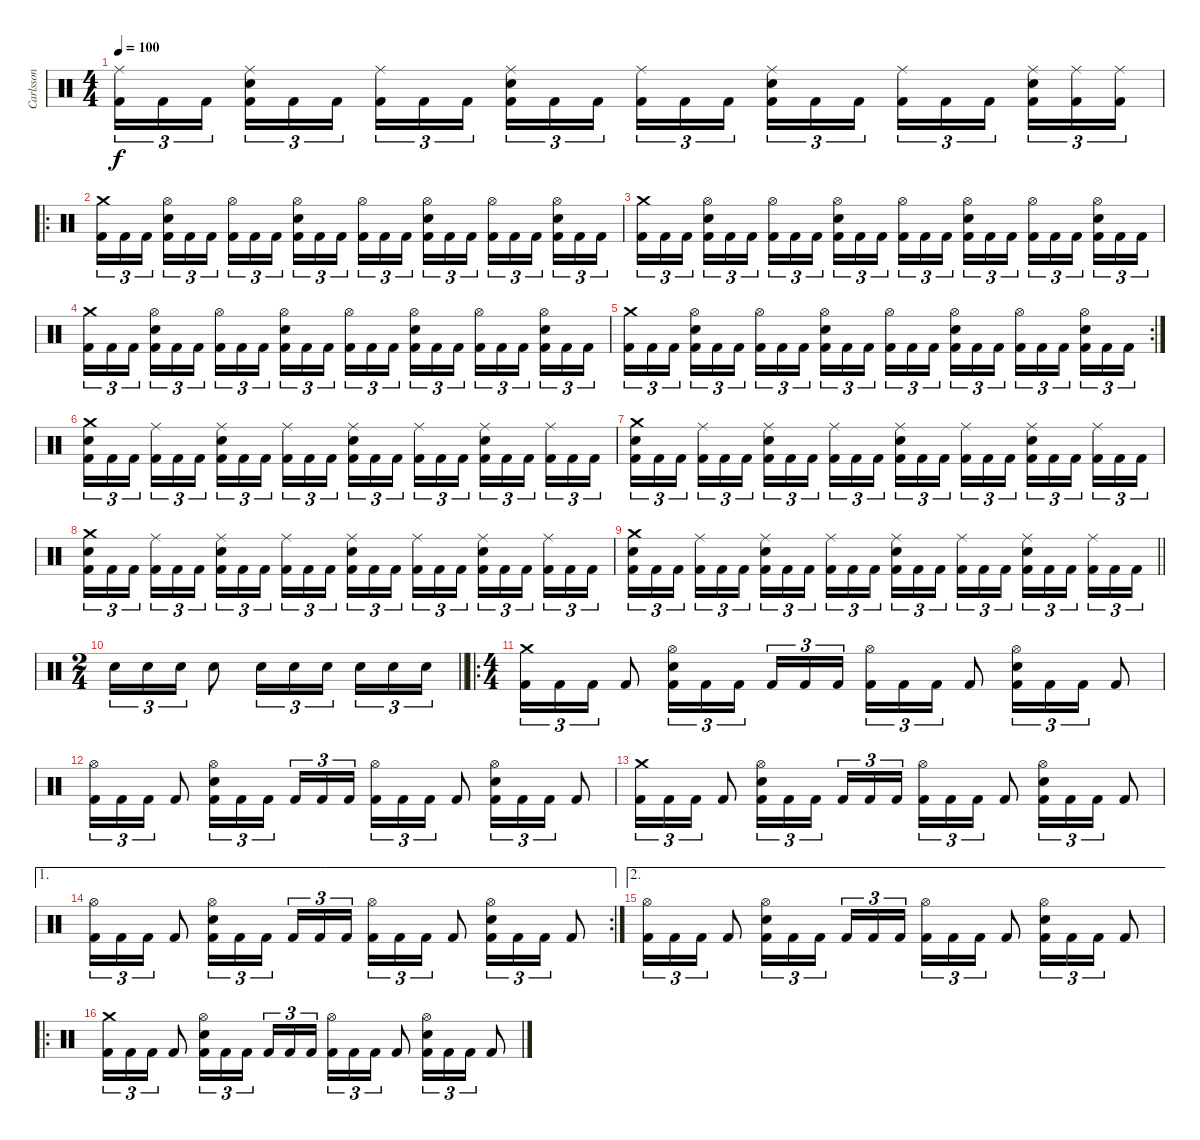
\track ("Carlsson" "Carlsson") {instrument percussion}
\staff {score}
\articulation defaults
\ts (4 4)
\tempo 100
\clef neutral
\ks c
("Ride (middle)" "Kick (hit) 2").16{tu (3 2) dy f} "Kick (hit) 2".16{tu (3 2)} "Kick (hit) 2".16{tu (3 2)} ("Ride (middle)" "Electric Snare (hit)" "Kick (hit) 2").16{tu (3 2)} "Kick (hit) 2".16{tu (3 2)} "Kick (hit) 2".16{tu (3 2)} ("Ride (middle)" "Kick (hit) 2").16{tu (3 2)} "Kick (hit) 2".16{tu (3 2)} "Kick (hit) 2".16{tu (3 2)} ("Ride (middle)" "Electric Snare (hit)" "Kick (hit) 2").16{tu (3 2)} "Kick (hit) 2".16{tu (3 2)} "Kick (hit) 2".16{tu (3 2)} ("Ride (middle)" "Kick (hit) 2").16{tu (3 2)} "Kick (hit) 2".16{tu (3 2)} "Kick (hit) 2".16{tu (3 2)} ("Ride (middle)" "Electric Snare (hit)" "Kick (hit) 2").16{tu (3 2)} "Kick (hit) 2".16{tu (3 2)} "Kick (hit) 2".16{tu (3 2)} ("Ride (middle)" "Kick (hit) 2").16{tu (3 2)} "Kick (hit) 2".16{tu (3 2)} "Kick (hit) 2".16{tu (3 2)} ("Ride (middle)" "Electric Snare (hit)" "Kick (hit) 2").16{tu (3 2)} ("Ride (middle)" "Kick (hit) 2").16{tu (3 2)} ("Ride (middle)" "Kick (hit) 2").16{tu (3 2)} |
\ro
("Crash medium (hit)" "Kick (hit) 2").16{tu (3 2)} "Kick (hit) 2".16{tu (3 2)} "Kick (hit) 2".16{tu (3 2)} ("Hi-Hat (open)" "Electric Snare (hit)" "Kick (hit) 2").16{tu (3 2)} "Kick (hit) 2".16{tu (3 2)} "Kick (hit) 2".16{tu (3 2)} ("Hi-Hat (open)" "Kick (hit) 2").16{tu (3 2)} "Kick (hit) 2".16{tu (3 2)} "Kick (hit) 2".16{tu (3 2)} ("Hi-Hat (open)" "Electric Snare (hit)" "Kick (hit) 2").16{tu (3 2)} "Kick (hit) 2".16{tu (3 2)} "Kick (hit) 2".16{tu (3 2)} ("Hi-Hat (open)" "Kick (hit) 2").16{tu (3 2)} "Kick (hit) 2".16{tu (3 2)} "Kick (hit) 2".16{tu (3 2)} ("Hi-Hat (open)" "Electric Snare (hit)" "Kick (hit) 2").16{tu (3 2)} "Kick (hit) 2".16{tu (3 2)} "Kick (hit) 2".16{tu (3 2)} ("Hi-Hat (open)" "Kick (hit) 2").16{tu (3 2)} "Kick (hit) 2".16{tu (3 2)} "Kick (hit) 2".16{tu (3 2)} ("Hi-Hat (open)" "Electric Snare (hit)" "Kick (hit) 2").16{tu (3 2)} "Kick (hit) 2".16{tu (3 2)} "Kick (hit) 2".16{tu (3 2)} |
("Crash medium (hit)" "Kick (hit) 2").16{tu (3 2)} "Kick (hit) 2".16{tu (3 2)} "Kick (hit) 2".16{tu (3 2)} ("Hi-Hat (open)" "Electric Snare (hit)" "Kick (hit) 2").16{tu (3 2)} "Kick (hit) 2".16{tu (3 2)} "Kick (hit) 2".16{tu (3 2)} ("Hi-Hat (open)" "Kick (hit) 2").16{tu (3 2)} "Kick (hit) 2".16{tu (3 2)} "Kick (hit) 2".16{tu (3 2)} ("Hi-Hat (open)" "Electric Snare (hit)" "Kick (hit) 2").16{tu (3 2)} "Kick (hit) 2".16{tu (3 2)} "Kick (hit) 2".16{tu (3 2)} ("Hi-Hat (open)" "Kick (hit) 2").16{tu (3 2)} "Kick (hit) 2".16{tu (3 2)} "Kick (hit) 2".16{tu (3 2)} ("Hi-Hat (open)" "Electric Snare (hit)" "Kick (hit) 2").16{tu (3 2)} "Kick (hit) 2".16{tu (3 2)} "Kick (hit) 2".16{tu (3 2)} ("Hi-Hat (open)" "Kick (hit) 2").16{tu (3 2)} "Kick (hit) 2".16{tu (3 2)} "Kick (hit) 2".16{tu (3 2)} ("Hi-Hat (open)" "Electric Snare (hit)" "Kick (hit) 2").16{tu (3 2)} "Kick (hit) 2".16{tu (3 2)} "Kick (hit) 2".16{tu (3 2)} |
("Crash medium (hit)" "Kick (hit) 2").16{tu (3 2)} "Kick (hit) 2".16{tu (3 2)} "Kick (hit) 2".16{tu (3 2)} ("Hi-Hat (open)" "Electric Snare (hit)" "Kick (hit) 2").16{tu (3 2)} "Kick (hit) 2".16{tu (3 2)} "Kick (hit) 2".16{tu (3 2)} ("Hi-Hat (open)" "Kick (hit) 2").16{tu (3 2)} "Kick (hit) 2".16{tu (3 2)} "Kick (hit) 2".16{tu (3 2)} ("Hi-Hat (open)" "Electric Snare (hit)" "Kick (hit) 2").16{tu (3 2)} "Kick (hit) 2".16{tu (3 2)} "Kick (hit) 2".16{tu (3 2)} ("Hi-Hat (open)" "Kick (hit) 2").16{tu (3 2)} "Kick (hit) 2".16{tu (3 2)} "Kick (hit) 2".16{tu (3 2)} ("Hi-Hat (open)" "Electric Snare (hit)" "Kick (hit) 2").16{tu (3 2)} "Kick (hit) 2".16{tu (3 2)} "Kick (hit) 2".16{tu (3 2)} ("Hi-Hat (open)" "Kick (hit) 2").16{tu (3 2)} "Kick (hit) 2".16{tu (3 2)} "Kick (hit) 2".16{tu (3 2)} ("Hi-Hat (open)" "Electric Snare (hit)" "Kick (hit) 2").16{tu (3 2)} "Kick (hit) 2".16{tu (3 2)} "Kick (hit) 2".16{tu (3 2)} |
\rc 2
("Crash medium (hit)" "Kick (hit) 2").16{tu (3 2)} "Kick (hit) 2".16{tu (3 2)} "Kick (hit) 2".16{tu (3 2)} ("Hi-Hat (open)" "Electric Snare (hit)" "Kick (hit) 2").16{tu (3 2)} "Kick (hit) 2".16{tu (3 2)} "Kick (hit) 2".16{tu (3 2)} ("Hi-Hat (open)" "Kick (hit) 2").16{tu (3 2)} "Kick (hit) 2".16{tu (3 2)} "Kick (hit) 2".16{tu (3 2)} ("Hi-Hat (open)" "Electric Snare (hit)" "Kick (hit) 2").16{tu (3 2)} "Kick (hit) 2".16{tu (3 2)} "Kick (hit) 2".16{tu (3 2)} ("Hi-Hat (open)" "Kick (hit) 2").16{tu (3 2)} "Kick (hit) 2".16{tu (3 2)} "Kick (hit) 2".16{tu (3 2)} ("Hi-Hat (open)" "Electric Snare (hit)" "Kick (hit) 2").16{tu (3 2)} "Kick (hit) 2".16{tu (3 2)} "Kick (hit) 2".16{tu (3 2)} ("Hi-Hat (open)" "Kick (hit) 2").16{tu (3 2)} "Kick (hit) 2".16{tu (3 2)} "Kick (hit) 2".16{tu (3 2)} ("Hi-Hat (open)" "Electric Snare (hit)" "Kick (hit) 2").16{tu (3 2)} "Kick (hit) 2".16{tu (3 2)} "Kick (hit) 2".16{tu (3 2)} |
("Crash medium (hit)" "Electric Snare (hit)" "Kick (hit) 2").16{tu (3 2)} "Kick (hit) 2".16{tu (3 2)} "Kick (hit) 2".16{tu (3 2)} ("Ride (middle)" "Kick (hit) 2").16{tu (3 2)} "Kick (hit) 2".16{tu (3 2)} "Kick (hit) 2".16{tu (3 2)} ("Ride (middle)" "Electric Snare (hit)" "Kick (hit) 2").16{tu (3 2)} "Kick (hit) 2".16{tu (3 2)} "Kick (hit) 2".16{tu (3 2)} ("Ride (middle)" "Kick (hit) 2").16{tu (3 2)} "Kick (hit) 2".16{tu (3 2)} "Kick (hit) 2".16{tu (3 2)} ("Ride (middle)" "Electric Snare (hit)" "Kick (hit) 2").16{tu (3 2)} "Kick (hit) 2".16{tu (3 2)} "Kick (hit) 2".16{tu (3 2)} ("Ride (middle)" "Kick (hit) 2").16{tu (3 2)} "Kick (hit) 2".16{tu (3 2)} "Kick (hit) 2".16{tu (3 2)} ("Ride (middle)" "Electric Snare (hit)" "Kick (hit) 2").16{tu (3 2)} "Kick (hit) 2".16{tu (3 2)} "Kick (hit) 2".16{tu (3 2)} ("Ride (middle)" "Kick (hit) 2").16{tu (3 2)} "Kick (hit) 2".16{tu (3 2)} "Kick (hit) 2".16{tu (3 2)} |
("Crash medium (hit)" "Electric Snare (hit)" "Kick (hit) 2").16{tu (3 2)} "Kick (hit) 2".16{tu (3 2)} "Kick (hit) 2".16{tu (3 2)} ("Ride (middle)" "Kick (hit) 2").16{tu (3 2)} "Kick (hit) 2".16{tu (3 2)} "Kick (hit) 2".16{tu (3 2)} ("Ride (middle)" "Electric Snare (hit)" "Kick (hit) 2").16{tu (3 2)} "Kick (hit) 2".16{tu (3 2)} "Kick (hit) 2".16{tu (3 2)} ("Ride (middle)" "Kick (hit) 2").16{tu (3 2)} "Kick (hit) 2".16{tu (3 2)} "Kick (hit) 2".16{tu (3 2)} ("Ride (middle)" "Electric Snare (hit)" "Kick (hit) 2").16{tu (3 2)} "Kick (hit) 2".16{tu (3 2)} "Kick (hit) 2".16{tu (3 2)} ("Ride (middle)" "Kick (hit) 2").16{tu (3 2)} "Kick (hit) 2".16{tu (3 2)} "Kick (hit) 2".16{tu (3 2)} ("Ride (middle)" "Electric Snare (hit)" "Kick (hit) 2").16{tu (3 2)} "Kick (hit) 2".16{tu (3 2)} "Kick (hit) 2".16{tu (3 2)} ("Ride (middle)" "Kick (hit) 2").16{tu (3 2)} "Kick (hit) 2".16{tu (3 2)} "Kick (hit) 2".16{tu (3 2)} |
("Crash medium (hit)" "Electric Snare (hit)" "Kick (hit) 2").16{tu (3 2)} "Kick (hit) 2".16{tu (3 2)} "Kick (hit) 2".16{tu (3 2)} ("Ride (middle)" "Kick (hit) 2").16{tu (3 2)} "Kick (hit) 2".16{tu (3 2)} "Kick (hit) 2".16{tu (3 2)} ("Ride (middle)" "Electric Snare (hit)" "Kick (hit) 2").16{tu (3 2)} "Kick (hit) 2".16{tu (3 2)} "Kick (hit) 2".16{tu (3 2)} ("Ride (middle)" "Kick (hit) 2").16{tu (3 2)} "Kick (hit) 2".16{tu (3 2)} "Kick (hit) 2".16{tu (3 2)} ("Ride (middle)" "Electric Snare (hit)" "Kick (hit) 2").16{tu (3 2)} "Kick (hit) 2".16{tu (3 2)} "Kick (hit) 2".16{tu (3 2)} ("Ride (middle)" "Kick (hit) 2").16{tu (3 2)} "Kick (hit) 2".16{tu (3 2)} "Kick (hit) 2".16{tu (3 2)} ("Ride (middle)" "Electric Snare (hit)" "Kick (hit) 2").16{tu (3 2)} "Kick (hit) 2".16{tu (3 2)} "Kick (hit) 2".16{tu (3 2)} ("Ride (middle)" "Kick (hit) 2").16{tu (3 2)} "Kick (hit) 2".16{tu (3 2)} "Kick (hit) 2".16{tu (3 2)} |
\barLineRight lightlight
("Crash medium (hit)" "Electric Snare (hit)" "Kick (hit) 2").16{tu (3 2)} "Kick (hit) 2".16{tu (3 2)} "Kick (hit) 2".16{tu (3 2)} ("Ride (middle)" "Kick (hit) 2").16{tu (3 2)} "Kick (hit) 2".16{tu (3 2)} "Kick (hit) 2".16{tu (3 2)} ("Ride (middle)" "Electric Snare (hit)" "Kick (hit) 2").16{tu (3 2)} "Kick (hit) 2".16{tu (3 2)} "Kick (hit) 2".16{tu (3 2)} ("Ride (middle)" "Kick (hit) 2").16{tu (3 2)} "Kick (hit) 2".16{tu (3 2)} "Kick (hit) 2".16{tu (3 2)} ("Ride (middle)" "Electric Snare (hit)" "Kick (hit) 2").16{tu (3 2)} "Kick (hit) 2".16{tu (3 2)} "Kick (hit) 2".16{tu (3 2)} ("Ride (middle)" "Kick (hit) 2").16{tu (3 2)} "Kick (hit) 2".16{tu (3 2)} "Kick (hit) 2".16{tu (3 2)} ("Ride (middle)" "Electric Snare (hit)" "Kick (hit) 2").16{tu (3 2)} "Kick (hit) 2".16{tu (3 2)} "Kick (hit) 2".16{tu (3 2)} ("Ride (middle)" "Kick (hit) 2").16{tu (3 2)} "Kick (hit) 2".16{tu (3 2)} "Kick (hit) 2".16{tu (3 2)} |
\ts (2 4)
\barLineRight lightlight "Electric Snare (hit)".16{tu (3 2)} "Electric Snare (hit)".16{tu (3 2)} "Electric Snare (hit)".16{tu (3 2)} "Electric Snare (hit)".8 "Electric Snare (hit)".16{tu (3 2)} "Electric Snare (hit)".16{tu (3 2)} "Electric Snare (hit)".16{tu (3 2)} "Electric Snare (hit)".16{tu (3 2)} "Electric Snare (hit)".16{tu (3 2)} "Electric Snare (hit)".16{tu (3 2)}
|
\ro
\ts (4 4)
("Crash medium (hit)" "Kick (hit) 2").16{tu (3 2)} "Kick (hit) 2".16{tu (3 2)} "Kick (hit) 2".16{tu (3 2)} "Kick (hit) 2".8 ("Hi-Hat (open)" "Electric Snare (hit)" "Kick (hit) 2").16{tu (3 2)} "Kick (hit) 2".16{tu (3 2)} "Kick (hit) 2".16{tu (3 2)} "Kick (hit) 2".16{tu (3 2)} "Kick (hit) 2".16{tu (3 2)} "Kick (hit) 2".16{tu (3 2)} ("Hi-Hat (open)" "Kick (hit) 2").16{tu (3 2)} "Kick (hit) 2".16{tu (3 2)} "Kick (hit) 2".16{tu (3 2)} "Kick (hit) 2".8 ("Hi-Hat (open)" "Electric Snare (hit)" "Kick (hit) 2").16{tu (3 2)} "Kick (hit) 2".16{tu (3 2)} "Kick (hit) 2".16{tu (3 2)} "Kick (hit) 2".8 |
("Hi-Hat (open)" "Kick (hit) 2").16{tu (3 2)} "Kick (hit) 2".16{tu (3 2)} "Kick (hit) 2".16{tu (3 2)} "Kick (hit) 2".8 ("Hi-Hat (open)" "Electric Snare (hit)" "Kick (hit) 2").16{tu (3 2)} "Kick (hit) 2".16{tu (3 2)} "Kick (hit) 2".16{tu (3 2)} "Kick (hit) 2".16{tu (3 2)} "Kick (hit) 2".16{tu (3 2)} "Kick (hit) 2".16{tu (3 2)} ("Hi-Hat (open)" "Kick (hit) 2").16{tu (3 2)} "Kick (hit) 2".16{tu (3 2)} "Kick (hit) 2".16{tu (3 2)} "Kick (hit) 2".8 ("Hi-Hat (open)" "Electric Snare (hit)" "Kick (hit) 2").16{tu (3 2)} "Kick (hit) 2".16{tu (3 2)} "Kick (hit) 2".16{tu (3 2)} "Kick (hit) 2".8 |
("Crash medium (hit)" "Kick (hit) 2").16{tu (3 2)} "Kick (hit) 2".16{tu (3 2)} "Kick (hit) 2".16{tu (3 2)} "Kick (hit) 2".8 ("Hi-Hat (open)" "Electric Snare (hit)" "Kick (hit) 2").16{tu (3 2)} "Kick (hit) 2".16{tu (3 2)} "Kick (hit) 2".16{tu (3 2)} "Kick (hit) 2".16{tu (3 2)} "Kick (hit) 2".16{tu (3 2)} "Kick (hit) 2".16{tu (3 2)} ("Hi-Hat (open)" "Kick (hit) 2").16{tu (3 2)} "Kick (hit) 2".16{tu (3 2)} "Kick (hit) 2".16{tu (3 2)} "Kick (hit) 2".8 ("Hi-Hat (open)" "Electric Snare (hit)" "Kick (hit) 2").16{tu (3 2)} "Kick (hit) 2".16{tu (3 2)} "Kick (hit) 2".16{tu (3 2)} "Kick (hit) 2".8 |
\ae 1
\rc 2
("Hi-Hat (open)" "Kick (hit) 2").16{tu (3 2)} "Kick (hit) 2".16{tu (3 2)} "Kick (hit) 2".16{tu (3 2)} "Kick (hit) 2".8 ("Hi-Hat (open)" "Electric Snare (hit)" "Kick (hit) 2").16{tu (3 2)} "Kick (hit) 2".16{tu (3 2)} "Kick (hit) 2".16{tu (3 2)} "Kick (hit) 2".16{tu (3 2)} "Kick (hit) 2".16{tu (3 2)} "Kick (hit) 2".16{tu (3 2)} ("Hi-Hat (open)" "Kick (hit) 2").16{tu (3 2)} "Kick (hit) 2".16{tu (3 2)} "Kick (hit) 2".16{tu (3 2)} "Kick (hit) 2".8 ("Hi-Hat (open)" "Electric Snare (hit)" "Kick (hit) 2").16{tu (3 2)} "Kick (hit) 2".16{tu (3 2)} "Kick (hit) 2".16{tu (3 2)} "Kick (hit) 2".8 |
\ae 2
("Hi-Hat (open)" "Kick (hit) 2").16{tu (3 2)} "Kick (hit) 2".16{tu (3 2)} "Kick (hit) 2".16{tu (3 2)} "Kick (hit) 2".8 ("Hi-Hat (open)" "Electric Snare (hit)" "Kick (hit) 2").16{tu (3 2)} "Kick (hit) 2".16{tu (3 2)} "Kick (hit) 2".16{tu (3 2)} "Kick (hit) 2".16{tu (3 2)} "Kick (hit) 2".16{tu (3 2)} "Kick (hit) 2".16{tu (3 2)} ("Hi-Hat (open)" "Kick (hit) 2").16{tu (3 2)} "Kick (hit) 2".16{tu (3 2)} "Kick (hit) 2".16{tu (3 2)} "Kick (hit) 2".8 ("Hi-Hat (open)" "Electric Snare (hit)" "Kick (hit) 2").16{tu (3 2)} "Kick (hit) 2".16{tu (3 2)} "Kick (hit) 2".16{tu (3 2)} "Kick (hit) 2".8 |
\ro
("Crash medium (hit)" "Kick (hit) 2").16{tu (3 2)} "Kick (hit) 2".16{tu (3 2)} "Kick (hit) 2".16{tu (3 2)} "Kick (hit) 2".8 ("Hi-Hat (open)" "Electric Snare (hit)" "Kick (hit) 2").16{tu (3 2)} "Kick (hit) 2".16{tu (3 2)} "Kick (hit) 2".16{tu (3 2)} "Kick (hit) 2".16{tu (3 2)} "Kick (hit) 2".16{tu (3 2)} "Kick (hit) 2".16{tu (3 2)} ("Hi-Hat (open)" "Kick (hit) 2").16{tu (3 2)} "Kick (hit) 2".16{tu (3 2)} "Kick (hit) 2".16{tu (3 2)} "Kick (hit) 2".8 ("Hi-Hat (open)" "Electric Snare (hit)" "Kick (hit) 2").16{tu (3 2)} "Kick (hit) 2".16{tu (3 2)} "Kick (hit) 2".16{tu (3 2)} "Kick (hit) 2".8
